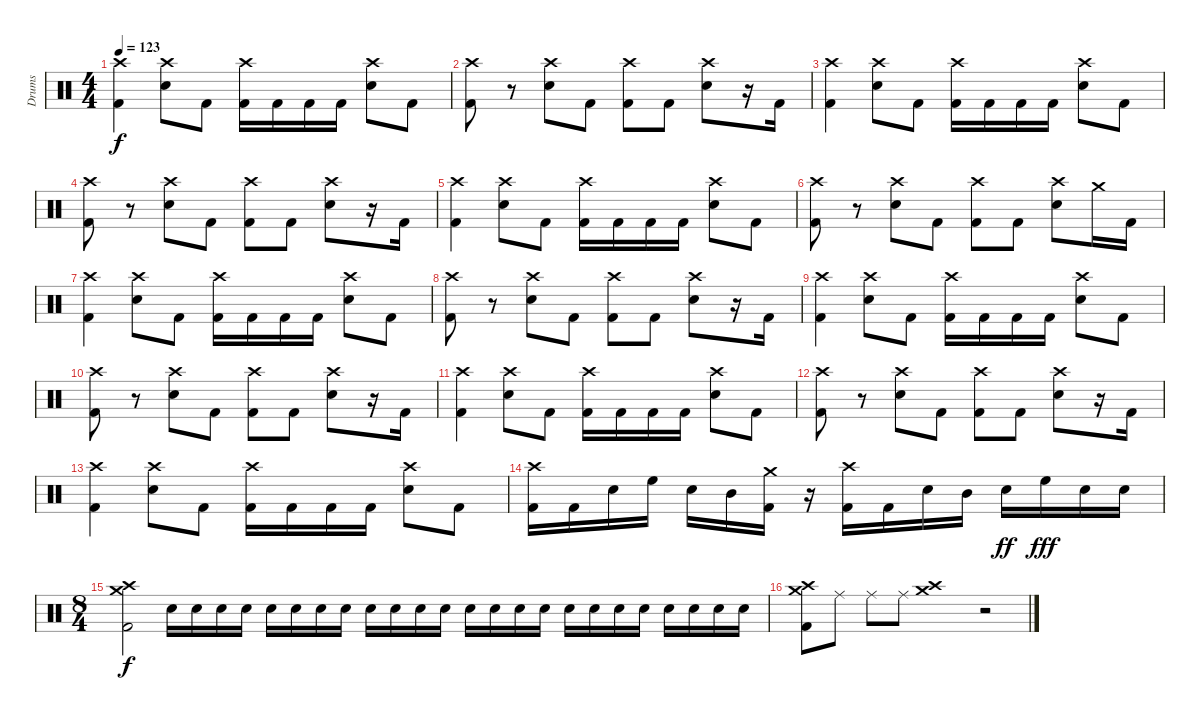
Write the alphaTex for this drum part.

\track ("Drums" "Drums") {instrument percussion}
\staff {score}
\articulation defaults
\ts (4 4)
\tempo 123
\clef neutral
\ks c
("Crash high (hit)" "Kick (hit) 2").4{dy f} ("Crash high (hit)" "Snare (hit) 2").8 "Kick (hit) 2".8 ("Crash high (hit)" "Kick (hit) 2").16 "Kick (hit) 2".16 "Kick (hit) 2".16 "Kick (hit) 2".16 ("Crash high (hit)" "Snare (hit) 2").8 "Kick (hit) 2".8 |
("Crash high (hit)" "Kick (hit) 2").8 r.8 ("Crash high (hit)" "Snare (hit) 2").8 "Kick (hit) 2".8 ("Crash high (hit)" "Kick (hit) 2").8 "Kick (hit) 2".8 ("Crash high (hit)" "Snare (hit) 2").8 r.16 "Kick (hit) 2".16 |
("Crash high (hit)" "Kick (hit) 2").4 ("Crash high (hit)" "Snare (hit) 2").8 "Kick (hit) 2".8 ("Crash high (hit)" "Kick (hit) 2").16 "Kick (hit) 2".16 "Kick (hit) 2".16 "Kick (hit) 2".16 ("Crash high (hit)" "Snare (hit) 2").8 "Kick (hit) 2".8 |
("Crash high (hit)" "Kick (hit) 2").8 r.8 ("Crash high (hit)" "Snare (hit) 2").8 "Kick (hit) 2".8 ("Crash high (hit)" "Kick (hit) 2").8 "Kick (hit) 2".8 ("Crash high (hit)" "Snare (hit) 2").8 r.16 "Kick (hit) 2".16 |
("Crash high (hit)" "Kick (hit) 2").4 ("Crash high (hit)" "Snare (hit) 2").8 "Kick (hit) 2".8 ("Crash high (hit)" "Kick (hit) 2").16 "Kick (hit) 2".16 "Kick (hit) 2".16 "Kick (hit) 2".16 ("Crash high (hit)" "Snare (hit) 2").8 "Kick (hit) 2".8 |
("Crash high (hit)" "Kick (hit) 2").8 r.8 ("Crash high (hit)" "Snare (hit) 2").8 "Kick (hit) 2".8 ("Crash high (hit)" "Kick (hit) 2").8 "Kick (hit) 2".8 ("Crash high (hit)" "Snare (hit) 2").8 "Crash medium (hit)".16 "Kick (hit) 2".16 |
("Crash high (hit)" "Kick (hit) 2").4 ("Crash high (hit)" "Snare (hit) 2").8 "Kick (hit) 2".8 ("Crash high (hit)" "Kick (hit) 2").16 "Kick (hit) 2".16 "Kick (hit) 2".16 "Kick (hit) 2".16 ("Crash high (hit)" "Snare (hit) 2").8 "Kick (hit) 2".8 |
("Crash high (hit)" "Kick (hit) 2").8 r.8 ("Crash high (hit)" "Snare (hit) 2").8 "Kick (hit) 2".8 ("Crash high (hit)" "Kick (hit) 2").8 "Kick (hit) 2".8 ("Crash high (hit)" "Snare (hit) 2").8 r.16 "Kick (hit) 2".16 |
("Crash high (hit)" "Kick (hit) 2").4 ("Crash high (hit)" "Snare (hit) 2").8 "Kick (hit) 2".8 ("Crash high (hit)" "Kick (hit) 2").16 "Kick (hit) 2".16 "Kick (hit) 2".16 "Kick (hit) 2".16 ("Crash high (hit)" "Snare (hit) 2").8 "Kick (hit) 2".8 |
("Crash high (hit)" "Kick (hit) 2").8 r.8 ("Crash high (hit)" "Snare (hit) 2").8 "Kick (hit) 2".8 ("Crash high (hit)" "Kick (hit) 2").8 "Kick (hit) 2".8 ("Crash high (hit)" "Snare (hit) 2").8 r.16 "Kick (hit) 2".16 |
("Crash high (hit)" "Kick (hit) 2").4 ("Crash high (hit)" "Snare (hit) 2").8 "Kick (hit) 2".8 ("Crash high (hit)" "Kick (hit) 2").16 "Kick (hit) 2".16 "Kick (hit) 2".16 "Kick (hit) 2".16 ("Crash high (hit)" "Snare (hit) 2").8 "Kick (hit) 2".8 |
("Crash high (hit)" "Kick (hit) 2").8 r.8 ("Crash high (hit)" "Snare (hit) 2").8 "Kick (hit) 2".8 ("Crash high (hit)" "Kick (hit) 2").8 "Kick (hit) 2".8 ("Crash high (hit)" "Snare (hit) 2").8 r.16 "Kick (hit) 2".16 |
("Crash high (hit)" "Kick (hit) 2").4 ("Crash high (hit)" "Snare (hit) 2").8 "Kick (hit) 2".8 ("Crash high (hit)" "Kick (hit) 2").16 "Kick (hit) 2".16 "Kick (hit) 2".16 "Kick (hit) 2".16 ("Crash high (hit)" "Snare (hit) 2").8 "Kick (hit) 2".8 |
("Crash high (hit)" "Kick (hit) 2").16 "Kick (hit) 2".16 "Snare (hit) 2".16 "High Floor Tom (hit)".16 "Snare (hit) 2".16 "Mid Tom (hit)".16 ("Crash medium (hit)" "Kick (hit) 2").16 r.16 ("Crash high (hit)" "Kick (hit) 2").16 "Kick (hit) 2".16 "Snare (hit) 2".16 "Mid Tom (hit)".16 "Snare (hit) 2".16{dy ff} "High Floor Tom (hit)".16{dy fff} "Snare (hit) 2".16 "Snare (hit) 2".16 |
\ts (8 4)
("Crash high (hit)" "Crash medium (hit)" "Kick (hit) 2").2{dy f} "Snare (hit) 2".16 "Snare (hit) 2".16 "Snare (hit) 2".16 "Snare (hit) 2".16 "Snare (hit) 2".16 "Snare (hit) 2".16 "Snare (hit) 2".16 "Snare (hit) 2".16 "Snare (hit) 2".16 "Snare (hit) 2".16 "Snare (hit) 2".16 "Snare (hit) 2".16 "Snare (hit) 2".16 "Snare (hit) 2".16 "Snare (hit) 2".16 "Snare (hit) 2".16 "Snare (hit) 2".16 "Snare (hit) 2".16 "Snare (hit) 2".16 "Snare (hit) 2".16 "Snare (hit) 2".16 "Snare (hit) 2".16 "Snare (hit) 2".16 "Snare (hit) 2".16 |
("Crash high (hit)" "Crash medium (hit)" "Kick (hit) 2").8 "Ride (middle)".8 "Ride (middle)".8 "Ride (middle)".8 ("Crash high (hit)" "Crash medium (hit)").1 r.2
